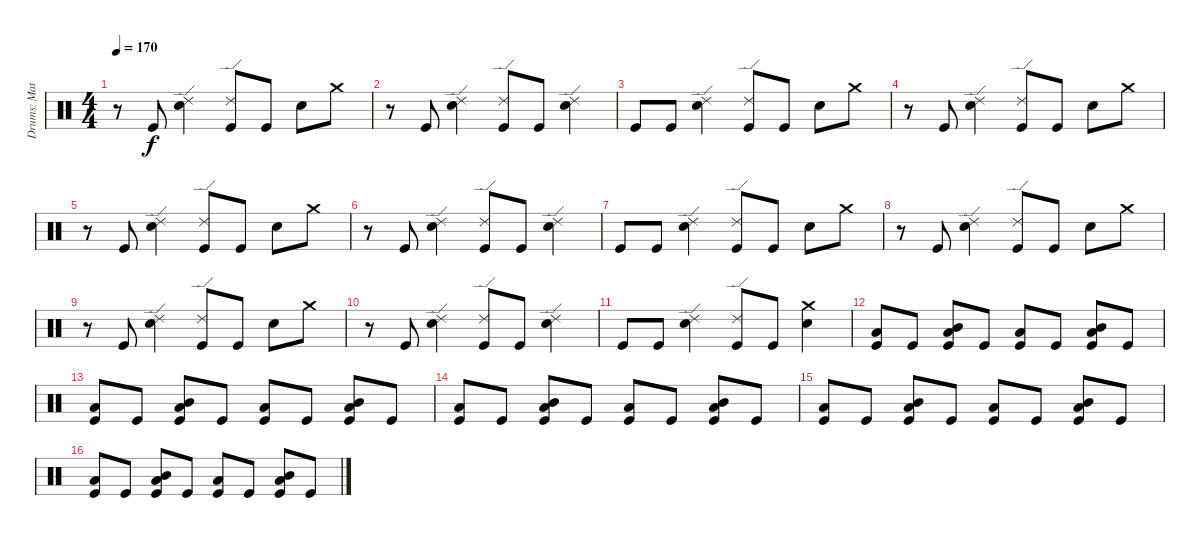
\track ("Drums: Matt" "Drums: Mat") {instrument percussion}
\staff {score}
\articulation defaults
\ts (4 4)
\tempo 170
\clef neutral
\ks c
r.8{dy f} "Kick (hit)".8 ("Ride (edge) 2" "Snare (hit) 2").4 ("Kick (hit)" "Ride (edge) 2").8 "Kick (hit)".8 "Snare (hit) 2".8 "Crash medium (hit)".8 |
r.8 "Kick (hit)".8 ("Ride (edge) 2" "Snare (hit) 2").4 ("Ride (edge) 2" "Kick (hit)").8 "Kick (hit)".8 ("Ride (edge) 2" "Snare (hit) 2").4 |
"Kick (hit)".8 "Kick (hit)".8 ("Ride (edge) 2" "Snare (hit) 2").4 ("Ride (edge) 2" "Kick (hit)").8 "Kick (hit)".8 "Snare (hit) 2".8 "Crash medium (hit)".8 |
r.8 "Kick (hit)".8 ("Snare (hit) 2" "Ride (edge) 2").4 ("Ride (edge) 2" "Kick (hit)").8 "Kick (hit)".8 "Snare (hit) 2".8 "Crash medium (hit)".8 |
r.8 "Kick (hit)".8 ("Snare (hit) 2" "Ride (edge) 2").4 ("Kick (hit)" "Ride (edge) 2").8 "Kick (hit)".8 "Snare (hit) 2".8 "Crash medium (hit)".8 |
r.8 "Kick (hit)".8 ("Snare (hit) 2" "Ride (edge) 2").4 ("Kick (hit)" "Ride (edge) 2").8 "Kick (hit)".8 ("Snare (hit) 2" "Ride (edge) 2").4 |
"Kick (hit)".8 "Kick (hit)".8 ("Ride (edge) 2" "Snare (hit) 2").4 ("Ride (edge) 2" "Kick (hit)").8 "Kick (hit)".8 "Snare (hit) 2".8 "Crash medium (hit)".8 |
r.8 "Kick (hit)".8 ("Snare (hit) 2" "Ride (edge) 2").4 ("Ride (edge) 2" "Kick (hit)").8 "Kick (hit)".8 "Snare (hit) 2".8 "Crash medium (hit)".8 |
r.8 "Kick (hit)".8 ("Ride (edge) 2" "Snare (hit) 2").4 ("Kick (hit)" "Ride (edge) 2").8 "Kick (hit)".8 "Snare (hit) 2".8 "Crash medium (hit)".8 |
r.8 "Kick (hit)".8 ("Snare (hit) 2" "Ride (edge) 2").4 ("Kick (hit)" "Ride (edge) 2").8 "Kick (hit)".8 ("Snare (hit) 2" "Ride (edge) 2").4 |
"Kick (hit)".8 "Kick (hit)".8 ("Snare (hit) 2" "Ride (edge) 2").4 ("Kick (hit)" "Ride (edge) 2").8 "Kick (hit)".8 ("Snare (hit) 2" "Crash medium (hit)").4 |
("Kick (hit)" "Low Floor Tom (hit)").8 "Kick (hit)".8 ("Low Floor Tom (hit)" "Mid Tom (hit)" "Kick (hit)").8 "Kick (hit)".8 ("Low Floor Tom (hit)" "Kick (hit)").8 "Kick (hit)".8 ("Kick (hit)" "Mid Tom (hit)" "Low Floor Tom (hit)").8 "Kick (hit)".8 |
("Low Floor Tom (hit)" "Kick (hit)").8 "Kick (hit)".8 ("Kick (hit)" "Mid Tom (hit)" "Low Floor Tom (hit)").8 "Kick (hit)".8 ("Low Floor Tom (hit)" "Kick (hit)").8 "Kick (hit)".8 ("Kick (hit)" "Low Floor Tom (hit)" "Mid Tom (hit)").8 "Kick (hit)".8 |
("Kick (hit)" "Low Floor Tom (hit)").8 "Kick (hit)".8 ("Low Floor Tom (hit)" "Mid Tom (hit)" "Kick (hit)").8 "Kick (hit)".8 ("Kick (hit)" "Low Floor Tom (hit)").8 "Kick (hit)".8 ("Low Floor Tom (hit)" "Kick (hit)" "Mid Tom (hit)").8 "Kick (hit)".8 |
("Low Floor Tom (hit)" "Kick (hit)").8 "Kick (hit)".8 ("Kick (hit)" "Mid Tom (hit)" "Low Floor Tom (hit)").8 "Kick (hit)".8 ("Low Floor Tom (hit)" "Kick (hit)").8 "Kick (hit)".8 ("Mid Tom (hit)" "Kick (hit)" "Low Floor Tom (hit)").8 "Kick (hit)".8 |
("Kick (hit)" "Low Floor Tom (hit)").8 "Kick (hit)".8 ("Low Floor Tom (hit)" "Mid Tom (hit)" "Kick (hit)").8 "Kick (hit)".8 ("Kick (hit)" "Low Floor Tom (hit)").8 "Kick (hit)".8 ("Low Floor Tom (hit)" "Kick (hit)" "Mid Tom (hit)").8 "Kick (hit)".8
